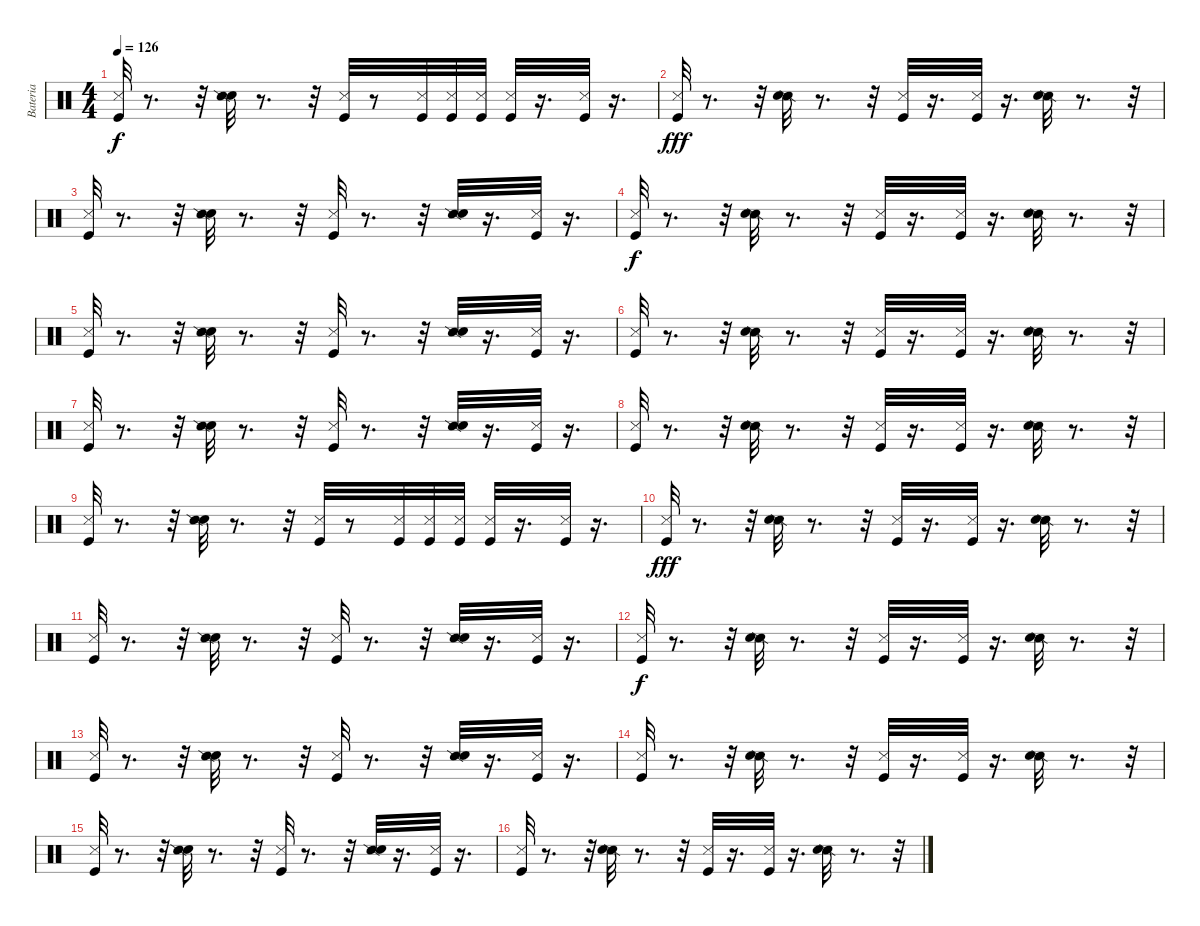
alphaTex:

\track ("Bateria" "Bateria") {instrument percussion}
\staff {score}
\articulation defaults
\ts (4 4)
\tempo 126
\clef neutral
\ks c
("Metronome (hit)" "Kick (hit)").32{dy f} r.8{d} r.32 ("Metronome (bell)" "Snare (side stick) 2").32 r.8{d} r.32 ("Metronome (hit)" "Kick (hit)").32 r.8 ("Kick (hit)" "Metronome (hit)").32 ("Metronome (hit)" "Kick (hit)").32 ("Metronome (hit)" "Kick (hit)").32 ("Kick (hit)" "Metronome (hit)").32 r.16{d} ("Kick (hit)" "Metronome (hit)").32 r.16{d} |
("Metronome (hit)" "Kick (hit)").32{dy fff} r.8{d} r.32 ("Snare (side stick) 2" "Metronome (bell)").32 r.8{d} r.32 ("Metronome (hit)" "Kick (hit)").32 r.16{d} ("Metronome (hit)" "Kick (hit)").32 r.16{d} ("Snare (side stick) 2" "Metronome (bell)").32 r.8{d} r.32 |
("Metronome (hit)" "Kick (hit)").32 r.8{d} r.32 ("Metronome (bell)" "Snare (side stick) 2").32 r.8{d} r.32 ("Metronome (hit)" "Kick (hit)").32 r.8{d} r.32 ("Snare (side stick) 2" "Metronome (bell)").32 r.16{d} ("Metronome (hit)" "Kick (hit)").32 r.16{d} |
("Metronome (hit)" "Kick (hit)").32{dy f} r.8{d} r.32 ("Snare (side stick) 2" "Metronome (bell)").32 r.8{d} r.32 ("Metronome (hit)" "Kick (hit)").32 r.16{d} ("Metronome (hit)" "Kick (hit)").32 r.16{d} ("Snare (side stick) 2" "Metronome (bell)").32 r.8{d} r.32 |
("Metronome (hit)" "Kick (hit)").32 r.8{d} r.32 ("Metronome (bell)" "Snare (side stick) 2").32 r.8{d} r.32 ("Metronome (hit)" "Kick (hit)").32 r.8{d} r.32 ("Snare (side stick) 2" "Metronome (bell)").32 r.16{d} ("Metronome (hit)" "Kick (hit)").32 r.16{d} |
("Metronome (hit)" "Kick (hit)").32 r.8{d} r.32 ("Snare (side stick) 2" "Metronome (bell)").32 r.8{d} r.32 ("Metronome (hit)" "Kick (hit)").32 r.16{d} ("Metronome (hit)" "Kick (hit)").32 r.16{d} ("Snare (side stick) 2" "Metronome (bell)").32 r.8{d} r.32 |
("Metronome (hit)" "Kick (hit)").32 r.8{d} r.32 ("Metronome (bell)" "Snare (side stick) 2").32 r.8{d} r.32 ("Metronome (hit)" "Kick (hit)").32 r.8{d} r.32 ("Snare (side stick) 2" "Metronome (bell)").32 r.16{d} ("Metronome (hit)" "Kick (hit)").32 r.16{d} |
("Metronome (hit)" "Kick (hit)").32 r.8{d} r.32 ("Snare (side stick) 2" "Metronome (bell)").32 r.8{d} r.32 ("Metronome (hit)" "Kick (hit)").32 r.16{d} ("Metronome (hit)" "Kick (hit)").32 r.16{d} ("Snare (side stick) 2" "Metronome (bell)").32 r.8{d} r.32 |
("Metronome (hit)" "Kick (hit)").32 r.8{d} r.32 ("Metronome (bell)" "Snare (side stick) 2").32 r.8{d} r.32 ("Metronome (hit)" "Kick (hit)").32 r.8 ("Kick (hit)" "Metronome (hit)").32 ("Metronome (hit)" "Kick (hit)").32 ("Metronome (hit)" "Kick (hit)").32 ("Kick (hit)" "Metronome (hit)").32 r.16{d} ("Kick (hit)" "Metronome (hit)").32 r.16{d} |
("Metronome (hit)" "Kick (hit)").32{dy fff} r.8{d} r.32 ("Snare (side stick) 2" "Metronome (bell)").32 r.8{d} r.32 ("Metronome (hit)" "Kick (hit)").32 r.16{d} ("Metronome (hit)" "Kick (hit)").32 r.16{d} ("Snare (side stick) 2" "Metronome (bell)").32 r.8{d} r.32 |
("Metronome (hit)" "Kick (hit)").32 r.8{d} r.32 ("Metronome (bell)" "Snare (side stick) 2").32 r.8{d} r.32 ("Metronome (hit)" "Kick (hit)").32 r.8{d} r.32 ("Snare (side stick) 2" "Metronome (bell)").32 r.16{d} ("Metronome (hit)" "Kick (hit)").32 r.16{d} |
("Metronome (hit)" "Kick (hit)").32{dy f} r.8{d} r.32 ("Snare (side stick) 2" "Metronome (bell)").32 r.8{d} r.32 ("Metronome (hit)" "Kick (hit)").32 r.16{d} ("Metronome (hit)" "Kick (hit)").32 r.16{d} ("Snare (side stick) 2" "Metronome (bell)").32 r.8{d} r.32 |
("Metronome (hit)" "Kick (hit)").32 r.8{d} r.32 ("Metronome (bell)" "Snare (side stick) 2").32 r.8{d} r.32 ("Metronome (hit)" "Kick (hit)").32 r.8{d} r.32 ("Snare (side stick) 2" "Metronome (bell)").32 r.16{d} ("Metronome (hit)" "Kick (hit)").32 r.16{d} |
("Metronome (hit)" "Kick (hit)").32 r.8{d} r.32 ("Snare (side stick) 2" "Metronome (bell)").32 r.8{d} r.32 ("Metronome (hit)" "Kick (hit)").32 r.16{d} ("Metronome (hit)" "Kick (hit)").32 r.16{d} ("Snare (side stick) 2" "Metronome (bell)").32 r.8{d} r.32 |
("Metronome (hit)" "Kick (hit)").32 r.8{d} r.32 ("Metronome (bell)" "Snare (side stick) 2").32 r.8{d} r.32 ("Metronome (hit)" "Kick (hit)").32 r.8{d} r.32 ("Snare (side stick) 2" "Metronome (bell)").32 r.16{d} ("Metronome (hit)" "Kick (hit)").32 r.16{d} |
("Metronome (hit)" "Kick (hit)").32 r.8{d} r.32 ("Snare (side stick) 2" "Metronome (bell)").32 r.8{d} r.32 ("Metronome (hit)" "Kick (hit)").32 r.16{d} ("Metronome (hit)" "Kick (hit)").32 r.16{d} ("Snare (side stick) 2" "Metronome (bell)").32 r.8{d} r.32
